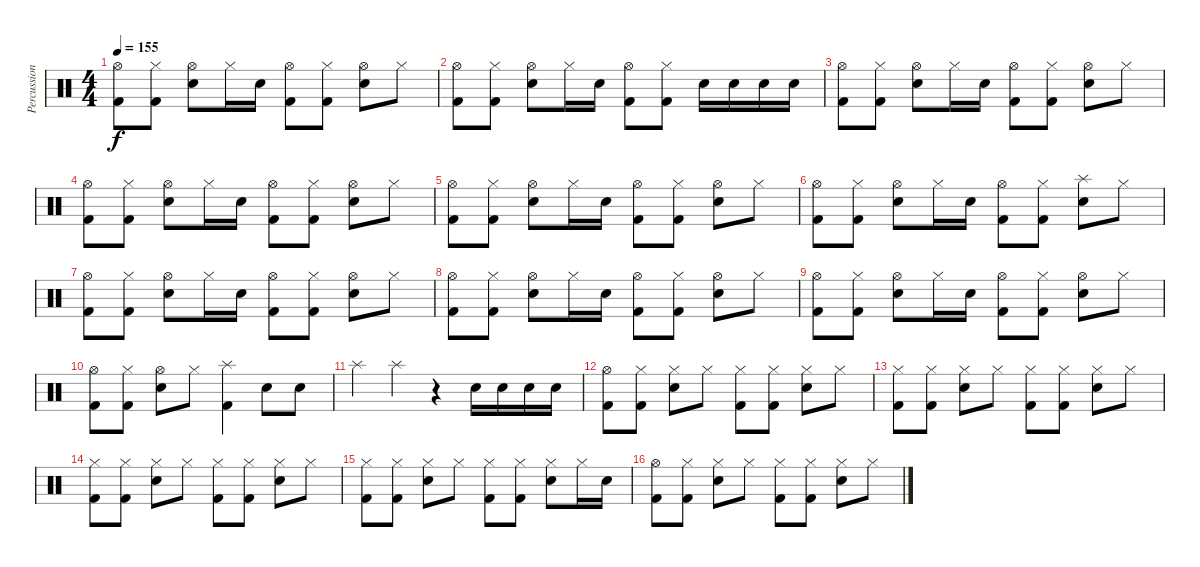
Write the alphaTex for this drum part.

\track ("Percussion" "Percussion") {instrument percussion}
\staff {score}
\articulation defaults
\ts (4 4)
\tempo 155
\clef neutral
\ks c
("Hi-Hat (open)" "Kick (hit) 2").8{dy f} ("Hi-Hat (closed)" "Kick (hit) 2").8 ("Hi-Hat (open)" "Snare (hit) 2").8 "Hi-Hat (closed)".16 "Snare (hit) 2".16 ("Hi-Hat (open)" "Kick (hit) 2").8 ("Hi-Hat (closed)" "Kick (hit) 2").8 ("Hi-Hat (open)" "Snare (hit) 2").8 "Hi-Hat (closed)".8 |
("Hi-Hat (open)" "Kick (hit) 2").8 ("Hi-Hat (closed)" "Kick (hit) 2").8 ("Hi-Hat (open)" "Snare (hit) 2").8 "Hi-Hat (closed)".16 "Snare (hit) 2".16 ("Hi-Hat (open)" "Kick (hit) 2").8 ("Hi-Hat (closed)" "Kick (hit) 2").8 "Snare (hit) 2".16 "Snare (hit) 2".16 "Snare (hit) 2".16 "Snare (hit) 2".16 |
("Hi-Hat (open)" "Kick (hit) 2").8 ("Hi-Hat (closed)" "Kick (hit) 2").8 ("Hi-Hat (open)" "Snare (hit) 2").8 "Hi-Hat (closed)".16 "Snare (hit) 2".16 ("Hi-Hat (open)" "Kick (hit) 2").8 ("Hi-Hat (closed)" "Kick (hit) 2").8 ("Hi-Hat (open)" "Snare (hit) 2").8 "Hi-Hat (closed)".8 |
("Hi-Hat (open)" "Kick (hit) 2").8 ("Hi-Hat (closed)" "Kick (hit) 2").8 ("Hi-Hat (open)" "Snare (hit) 2").8 "Hi-Hat (closed)".16 "Snare (hit) 2".16 ("Hi-Hat (open)" "Kick (hit) 2").8 ("Hi-Hat (closed)" "Kick (hit) 2").8 ("Hi-Hat (open)" "Snare (hit) 2").8 "Hi-Hat (closed)".8 |
("Hi-Hat (open)" "Kick (hit) 2").8 ("Hi-Hat (closed)" "Kick (hit) 2").8 ("Hi-Hat (open)" "Snare (hit) 2").8 "Hi-Hat (closed)".16 "Snare (hit) 2".16 ("Hi-Hat (open)" "Kick (hit) 2").8 ("Hi-Hat (closed)" "Kick (hit) 2").8 ("Hi-Hat (open)" "Snare (hit) 2").8 "Hi-Hat (closed)".8 |
("Hi-Hat (open)" "Kick (hit) 2").8 ("Hi-Hat (closed)" "Kick (hit) 2").8 ("Hi-Hat (open)" "Snare (hit) 2").8 "Hi-Hat (closed)".16 "Snare (hit) 2".16 ("Hi-Hat (open)" "Kick (hit) 2").8 ("Hi-Hat (closed)" "Kick (hit) 2").8 ("Splash (hit)" "Snare (hit) 2").8 "Hi-Hat (closed)".8 |
("Hi-Hat (open)" "Kick (hit) 2").8 ("Hi-Hat (closed)" "Kick (hit) 2").8 ("Hi-Hat (open)" "Snare (hit) 2").8 "Hi-Hat (closed)".16 "Snare (hit) 2".16 ("Hi-Hat (open)" "Kick (hit) 2").8 ("Hi-Hat (closed)" "Kick (hit) 2").8 ("Hi-Hat (open)" "Snare (hit) 2").8 "Hi-Hat (closed)".8 |
("Hi-Hat (open)" "Kick (hit) 2").8 ("Hi-Hat (closed)" "Kick (hit) 2").8 ("Hi-Hat (open)" "Snare (hit) 2").8 "Hi-Hat (closed)".16 "Snare (hit) 2".16 ("Hi-Hat (open)" "Kick (hit) 2").8 ("Hi-Hat (closed)" "Kick (hit) 2").8 ("Hi-Hat (open)" "Snare (hit) 2").8 "Hi-Hat (closed)".8 |
("Hi-Hat (open)" "Kick (hit) 2").8 ("Hi-Hat (closed)" "Kick (hit) 2").8 ("Hi-Hat (open)" "Snare (hit) 2").8 "Hi-Hat (closed)".16 "Snare (hit) 2".16 ("Hi-Hat (open)" "Kick (hit) 2").8 ("Hi-Hat (closed)" "Kick (hit) 2").8 ("Hi-Hat (open)" "Snare (hit) 2").8 "Hi-Hat (closed)".8 |
("Hi-Hat (open)" "Kick (hit) 2").8 ("Hi-Hat (closed)" "Kick (hit) 2").8 ("Hi-Hat (open)" "Snare (hit) 2").8 "Hi-Hat (closed)".8 ("Splash (hit)" "Kick (hit) 2").4 "Snare (hit) 2".8 "Snare (hit) 2".8 |
"Splash (hit)".4 "Splash (hit)".4 r.4 "Snare (hit) 2".16 "Snare (hit) 2".16 "Snare (hit) 2".16 "Snare (hit) 2".16 |
("Hi-Hat (open)" "Kick (hit) 2").8 ("Hi-Hat (closed)" "Kick (hit) 2").8 ("Hi-Hat (closed)" "Snare (hit) 2").8 "Hi-Hat (closed)".8 ("Hi-Hat (closed)" "Kick (hit) 2").8 ("Hi-Hat (closed)" "Kick (hit) 2").8 ("Hi-Hat (closed)" "Snare (hit) 2").8 "Hi-Hat (closed)".8 |
("Hi-Hat (closed)" "Kick (hit) 2").8 ("Hi-Hat (closed)" "Kick (hit) 2").8 ("Hi-Hat (closed)" "Snare (hit) 2").8 "Hi-Hat (closed)".8 ("Hi-Hat (closed)" "Kick (hit) 2").8 ("Hi-Hat (closed)" "Kick (hit) 2").8 ("Hi-Hat (closed)" "Snare (hit) 2").8 "Hi-Hat (closed)".8 |
("Hi-Hat (closed)" "Kick (hit) 2").8 ("Hi-Hat (closed)" "Kick (hit) 2").8 ("Hi-Hat (closed)" "Snare (hit) 2").8 "Hi-Hat (closed)".8 ("Hi-Hat (closed)" "Kick (hit) 2").8 ("Hi-Hat (closed)" "Kick (hit) 2").8 ("Hi-Hat (closed)" "Snare (hit) 2").8 "Hi-Hat (closed)".8 |
("Hi-Hat (closed)" "Kick (hit) 2").8 ("Hi-Hat (closed)" "Kick (hit) 2").8 ("Hi-Hat (closed)" "Snare (hit) 2").8 "Hi-Hat (closed)".8 ("Hi-Hat (closed)" "Kick (hit) 2").8 ("Hi-Hat (closed)" "Kick (hit) 2").8 ("Hi-Hat (closed)" "Snare (hit) 2").8 "Hi-Hat (closed)".16 "Snare (hit) 2".16 |
("Hi-Hat (open)" "Kick (hit) 2").8 ("Hi-Hat (closed)" "Kick (hit) 2").8 ("Hi-Hat (closed)" "Snare (hit) 2").8 "Hi-Hat (closed)".8 ("Hi-Hat (closed)" "Kick (hit) 2").8 ("Hi-Hat (closed)" "Kick (hit) 2").8 ("Hi-Hat (closed)" "Snare (hit) 2").8 "Hi-Hat (closed)".8
